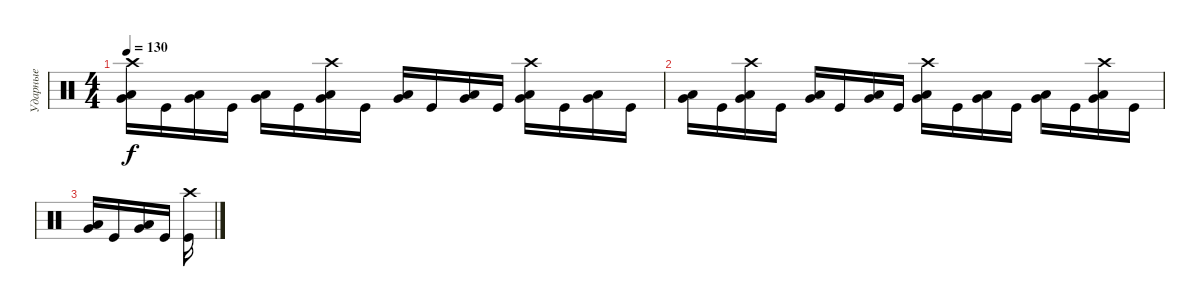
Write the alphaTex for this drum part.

\track ("Ударные" "Ударные") {instrument percussion}
\staff {score}
\articulation defaults
\ts (4 4)
\tempo 130
\clef neutral
\ks c
("Crash high (hit)" "Very Low Tom (hit)" "Low Tom (hit)").16{dy f} "Kick (hit)".16 ("Very Low Tom (hit)" "Low Tom (hit)").16 "Kick (hit)".16 ("Very Low Tom (hit)" "Low Tom (hit)").16 "Kick (hit)".16 ("Crash high (hit)" "Very Low Tom (hit)" "Low Tom (hit)").16 "Kick (hit)".16 ("Very Low Tom (hit)" "Low Tom (hit)").16 "Kick (hit)".16 ("Very Low Tom (hit)" "Low Tom (hit)").16 "Kick (hit)".16 ("Crash high (hit)" "Very Low Tom (hit)" "Low Tom (hit)").16 "Kick (hit)".16 ("Very Low Tom (hit)" "Low Tom (hit)").16 "Kick (hit)".16 |
("Very Low Tom (hit)" "Low Tom (hit)").16 "Kick (hit)".16 ("Crash high (hit)" "Very Low Tom (hit)" "Low Tom (hit)").16 "Kick (hit)".16 ("Very Low Tom (hit)" "Low Tom (hit)").16 "Kick (hit)".16 ("Very Low Tom (hit)" "Low Tom (hit)").16 "Kick (hit)".16 ("Crash high (hit)" "Very Low Tom (hit)" "Low Tom (hit)").16 "Kick (hit)".16 ("Very Low Tom (hit)" "Low Tom (hit)").16 "Kick (hit)".16 ("Very Low Tom (hit)" "Low Tom (hit)").16 "Kick (hit)".16 ("Crash high (hit)" "Very Low Tom (hit)" "Low Tom (hit)").16 "Kick (hit)".16 |
("Very Low Tom (hit)" "Low Tom (hit)").16 "Kick (hit)".16 ("Low Tom (hit)" "Very Low Tom (hit)").16 "Kick (hit)".16 ("Crash high (hit)" "Kick (hit)").16
